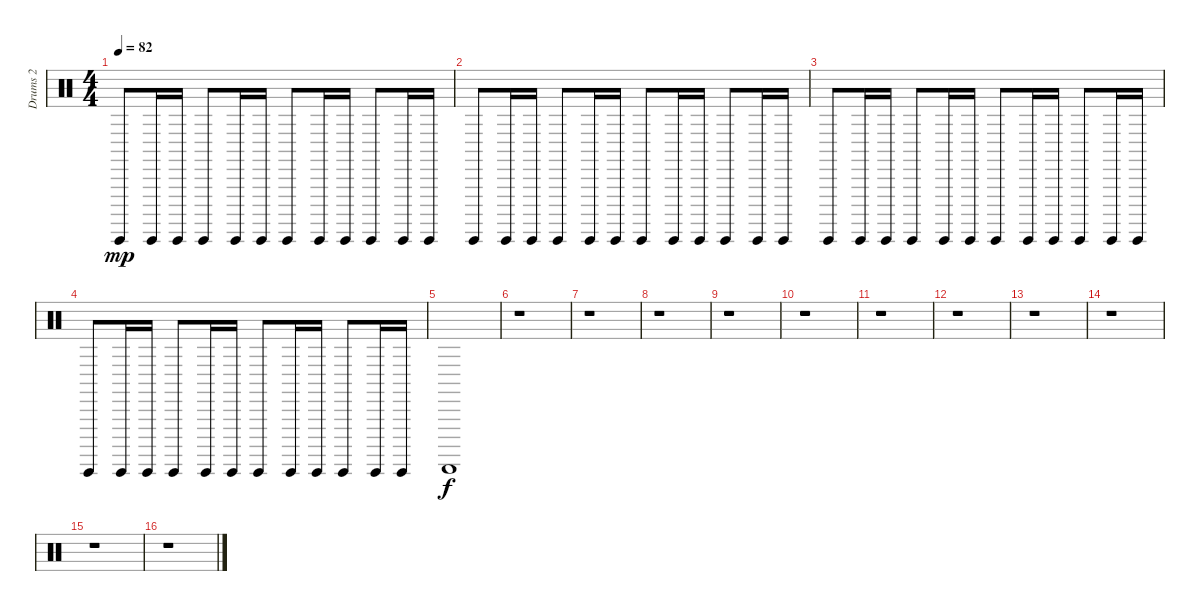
\track ("Drums 2" "Drums 2") {instrument percussion}
\staff {score}
\articulation defaults
\ts (4 4)
\tempo 82
\clef neutral
\ks c "Guiro (hit)".8{dy mp} "Guiro (hit)".16 "Guiro (hit)".16 "Guiro (hit)".8 "Guiro (hit)".16 "Guiro (hit)".16 "Guiro (hit)".8 "Guiro (hit)".16 "Guiro (hit)".16 "Guiro (hit)".8 "Guiro (hit)".16 "Guiro (hit)".16
|
"Guiro (hit)".8 "Guiro (hit)".16 "Guiro (hit)".16 "Guiro (hit)".8 "Guiro (hit)".16 "Guiro (hit)".16 "Guiro (hit)".8 "Guiro (hit)".16 "Guiro (hit)".16 "Guiro (hit)".8 "Guiro (hit)".16 "Guiro (hit)".16 |
"Guiro (hit)".8 "Guiro (hit)".16 "Guiro (hit)".16 "Guiro (hit)".8 "Guiro (hit)".16 "Guiro (hit)".16 "Guiro (hit)".8 "Guiro (hit)".16 "Guiro (hit)".16 "Guiro (hit)".8 "Guiro (hit)".16 "Guiro (hit)".16 |
"Guiro (hit)".8 "Guiro (hit)".16 "Guiro (hit)".16 "Guiro (hit)".8 "Guiro (hit)".16 "Guiro (hit)".16 "Guiro (hit)".8 "Guiro (hit)".16 "Guiro (hit)".16 "Guiro (hit)".8 "Guiro (hit)".16 "Guiro (hit)".16 |
"Guiro (scrap-return)".1{dy f} |
r.1 |
r.1 |
r.1 |
r.1 |
r.1 |
r.1 |
r.1 |
r.1 |
r.1 |
r.1 |
r.1
